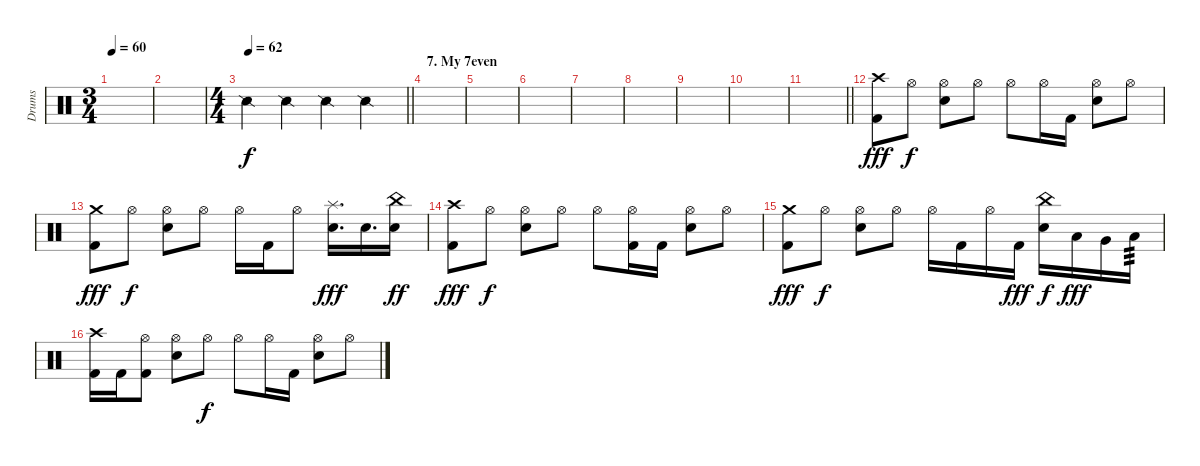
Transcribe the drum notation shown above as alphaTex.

\track ("Drums" "Drums") {instrument percussion}
\staff {score}
\articulation defaults
\ts (3 4)
\tempo 60
\clef neutral
\ks c
|
|
\ts (4 4)
\tempo 62
\barLineRight lightlight "Snare (side stick) 2".4{dy f} "Snare (side stick) 2".4 "Snare (side stick) 2".4 "Snare (side stick) 2".4
|
\section ("" "7. My 7even")
|
|
|
|
|
|
|
\barLineRight lightlight
|
("Kick (hit) 2" "Crash high (hit)").8{dy fff} "Hi-Hat (open)".8{dy f} ("Electric Snare (hit)" "Hi-Hat (open)").8 "Hi-Hat (open)".8 "Hi-Hat (open)".8 "Hi-Hat (open)".16 "Kick (hit) 2".16 ("Electric Snare (hit)" "Hi-Hat (open)").8 "Hi-Hat (open)".8 |
("Kick (hit) 2" "Crash medium (hit)").8{dy fff} "Hi-Hat (open)".8{dy f} ("Electric Snare (hit)" "Hi-Hat (open)").8 "Hi-Hat (open)".8 "Hi-Hat (open)".16 "Kick (hit) 2".16 "Hi-Hat (open)".8 ("Electric Snare (hit)" "Splash (hit)").16{d dy fff} "Electric Snare (hit)".16{d} ("Electric Snare (hit)" "China (hit)").16{dy ff} |
("Kick (hit) 2" "Crash high (hit)").8{dy fff} "Hi-Hat (open)".8{dy f} ("Electric Snare (hit)" "Hi-Hat (open)").8 "Hi-Hat (open)".8 "Hi-Hat (open)".8 ("Kick (hit) 2" "Hi-Hat (open)").16 "Kick (hit) 2".16 ("Electric Snare (hit)" "Hi-Hat (open)").8 "Hi-Hat (open)".8 |
("Kick (hit) 2" "Crash medium (hit)").8{dy fff} "Hi-Hat (open)".8{dy f} ("Electric Snare (hit)" "Hi-Hat (open)").8 "Hi-Hat (open)".8 "Hi-Hat (open)".16 "Kick (hit) 2".16 "Hi-Hat (open)".16 "Kick (hit) 2".16{dy fff} ("Electric Snare (hit)" "China (hit)").16{dy f} "Low Tom (hit)".16{dy fff} "Very Low Tom (hit)".16 "Low Floor Tom (hit)".16{tp 3} |
("Kick (hit) 2" "Crash high (hit)").16 "Kick (hit) 2".16 ("Kick (hit) 2" "Hi-Hat (open)").8 ("Electric Snare (hit)" "Hi-Hat (open)").8 "Hi-Hat (open)".8{dy f} "Hi-Hat (open)".8 "Hi-Hat (open)".16 "Kick (hit) 2".16 ("Electric Snare (hit)" "Hi-Hat (open)").8 "Hi-Hat (open)".8
